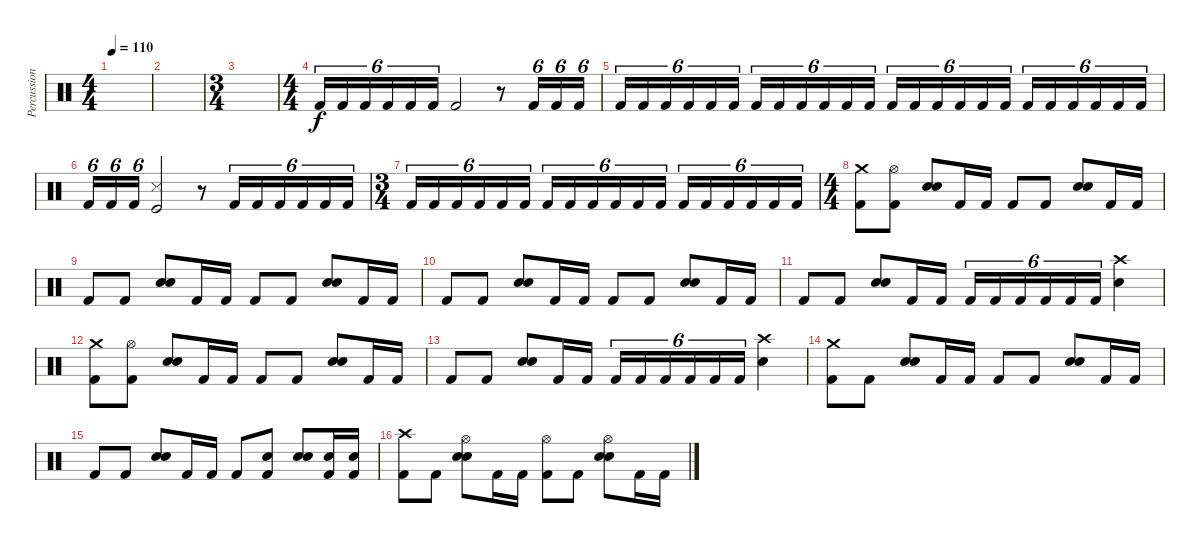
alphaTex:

\track ("Percussion" "Percussion") {instrument percussion}
\staff {score}
\articulation defaults
\ts (4 4)
\tempo 110
\clef neutral
\ks c
|
|
\ts (3 4)
|
\ts (4 4)
"Kick (hit) 2".16{tu (6 4)} "Kick (hit) 2".16{tu (6 4)} "Kick (hit) 2".16{tu (6 4)} "Kick (hit) 2".16{tu (6 4)} "Kick (hit) 2".16{tu (6 4)} "Kick (hit) 2".16{tu (6 4)} "Kick (hit) 2".2 r.8 "Kick (hit) 2".16{tu (6 4) balance 1} "Kick (hit) 2".16{tu (6 4)} "Kick (hit) 2".16{tu (6 4)} |
"Kick (hit) 2".16{tu (6 4)} "Kick (hit) 2".16{tu (6 4)} "Kick (hit) 2".16{tu (6 4)} "Kick (hit) 2".16{tu (6 4) balance 15} "Kick (hit) 2".16{tu (6 4)} "Kick (hit) 2".16{tu (6 4)} "Kick (hit) 2".16{tu (6 4)} "Kick (hit) 2".16{tu (6 4)} "Kick (hit) 2".16{tu (6 4)} "Kick (hit) 2".16{tu (6 4) balance 1} "Kick (hit) 2".16{tu (6 4)} "Kick (hit) 2".16{tu (6 4)} "Kick (hit) 2".16{tu (6 4)} "Kick (hit) 2".16{tu (6 4)} "Kick (hit) 2".16{tu (6 4)} "Kick (hit) 2".16{tu (6 4) balance 15} "Kick (hit) 2".16{tu (6 4)} "Kick (hit) 2".16{tu (6 4)} "Kick (hit) 2".16{tu (6 4)} "Kick (hit) 2".16{tu (6 4)} "Kick (hit) 2".16{tu (6 4)} "Kick (hit) 2".16{tu (6 4) balance 8} "Kick (hit) 2".16{tu (6 4)} "Kick (hit) 2".16{tu (6 4)} |
"Kick (hit) 2".16{tu (6 4)} "Kick (hit) 2".16{tu (6 4)} "Kick (hit) 2".16{tu (6 4)} ("Kick (hit)" "Snare (side stick) 3").2 r.8 "Kick (hit) 2".16{tu (6 4) balance 15} "Kick (hit) 2".16{tu (6 4)} "Kick (hit) 2".16{tu (6 4)} "Kick (hit) 2".16{tu (6 4)} "Kick (hit) 2".16{tu (6 4)} "Kick (hit) 2".16{tu (6 4)} |
\ts (3 4)
"Kick (hit) 2".16{tu (6 4) balance 8} "Kick (hit) 2".16{tu (6 4)} "Kick (hit) 2".16{tu (6 4)} "Kick (hit) 2".16{tu (6 4)} "Kick (hit) 2".16{tu (6 4)} "Kick (hit) 2".16{tu (6 4)} "Kick (hit) 2".16{tu (6 4) balance 1} "Kick (hit) 2".16{tu (6 4)} "Kick (hit) 2".16{tu (6 4)} "Kick (hit) 2".16{tu (6 4)} "Kick (hit) 2".16{tu (6 4)} "Kick (hit) 2".16{tu (6 4)} "Kick (hit) 2".16{tu (6 4) balance 8} "Kick (hit) 2".16{tu (6 4)} "Kick (hit) 2".16{tu (6 4)} "Kick (hit) 2".16{tu (6 4)} "Kick (hit) 2".16{tu (6 4)} "Kick (hit) 2".16{tu (6 4)} |
\ts (4 4)
("Crash medium (hit)" "Kick (hit) 2").8{balance 8} ("Hi-Hat (open)" "Kick (hit) 2").8 ("Electric Snare (hit)" "Electric Snare (hit)").8 "Kick (hit) 2".16 "Kick (hit) 2".16 "Kick (hit) 2".8 "Kick (hit) 2".8 ("Electric Snare (hit)" "Electric Snare (hit)").8 "Kick (hit) 2".16 "Kick (hit) 2".16 |
"Kick (hit) 2".8 "Kick (hit) 2".8 ("Electric Snare (hit)" "Electric Snare (hit)").8 "Kick (hit) 2".16 "Kick (hit) 2".16 "Kick (hit) 2".8 "Kick (hit) 2".8 ("Electric Snare (hit)" "Electric Snare (hit)").8 "Kick (hit) 2".16 "Kick (hit) 2".16 |
"Kick (hit) 2".8 "Kick (hit) 2".8 ("Electric Snare (hit)" "Electric Snare (hit)").8 "Kick (hit) 2".16 "Kick (hit) 2".16 "Kick (hit) 2".8 "Kick (hit) 2".8 ("Electric Snare (hit)" "Electric Snare (hit)").8 "Kick (hit) 2".16 "Kick (hit) 2".16 |
"Kick (hit) 2".8 "Kick (hit) 2".8 ("Electric Snare (hit)" "Electric Snare (hit)").8 "Kick (hit) 2".16 "Kick (hit) 2".16 "Kick (hit) 2".16{tu (6 4)} "Kick (hit) 2".16{tu (6 4)} "Kick (hit) 2".16{tu (6 4)} "Kick (hit) 2".16{tu (6 4)} "Kick (hit) 2".16{tu (6 4)} "Kick (hit) 2".16{tu (6 4)} ("Electric Snare (hit)" "Crash high (hit)").4 |
("Crash medium (hit)" "Kick (hit) 2").8 ("Hi-Hat (open)" "Kick (hit) 2").8 ("Electric Snare (hit)" "Electric Snare (hit)").8 "Kick (hit) 2".16 "Kick (hit) 2".16 "Kick (hit) 2".8 "Kick (hit) 2".8 ("Electric Snare (hit)" "Electric Snare (hit)").8 "Kick (hit) 2".16 "Kick (hit) 2".16 |
"Kick (hit) 2".8 "Kick (hit) 2".8 ("Electric Snare (hit)" "Electric Snare (hit)").8 "Kick (hit) 2".16 "Kick (hit) 2".16 "Kick (hit) 2".16{tu (6 4)} "Kick (hit) 2".16{tu (6 4)} "Kick (hit) 2".16{tu (6 4)} "Kick (hit) 2".16{tu (6 4)} "Kick (hit) 2".16{tu (6 4)} "Kick (hit) 2".16{tu (6 4)} ("Electric Snare (hit)" "Crash high (hit)").4 |
("Crash medium (hit)" "Kick (hit) 2").8 "Kick (hit) 2".8 ("Electric Snare (hit)" "Electric Snare (hit)").8 "Kick (hit) 2".16 "Kick (hit) 2".16 "Kick (hit) 2".8 "Kick (hit) 2".8 ("Electric Snare (hit)" "Electric Snare (hit)").8 "Kick (hit) 2".16 "Kick (hit) 2".16 |
"Kick (hit) 2".8 "Kick (hit) 2".8 ("Electric Snare (hit)" "Electric Snare (hit)").8 "Kick (hit) 2".16 "Kick (hit) 2".16 "Kick (hit) 2".8 ("Electric Snare (hit)" "Kick (hit) 2").8 ("Electric Snare (hit)" "Electric Snare (hit)").8 ("Electric Snare (hit)" "Kick (hit) 2").16 ("Electric Snare (hit)" "Kick (hit) 2").16 |
("Crash high (hit)" "Kick (hit) 2").8 "Kick (hit) 2".8 ("Hi-Hat (open)" "Electric Snare (hit)" "Electric Snare (hit)").8 "Kick (hit) 2".16 "Kick (hit) 2".16 ("Hi-Hat (open)" "Kick (hit) 2").8 "Kick (hit) 2".8 ("Hi-Hat (open)" "Electric Snare (hit)" "Electric Snare (hit)").8 "Kick (hit) 2".16 "Kick (hit) 2".16
